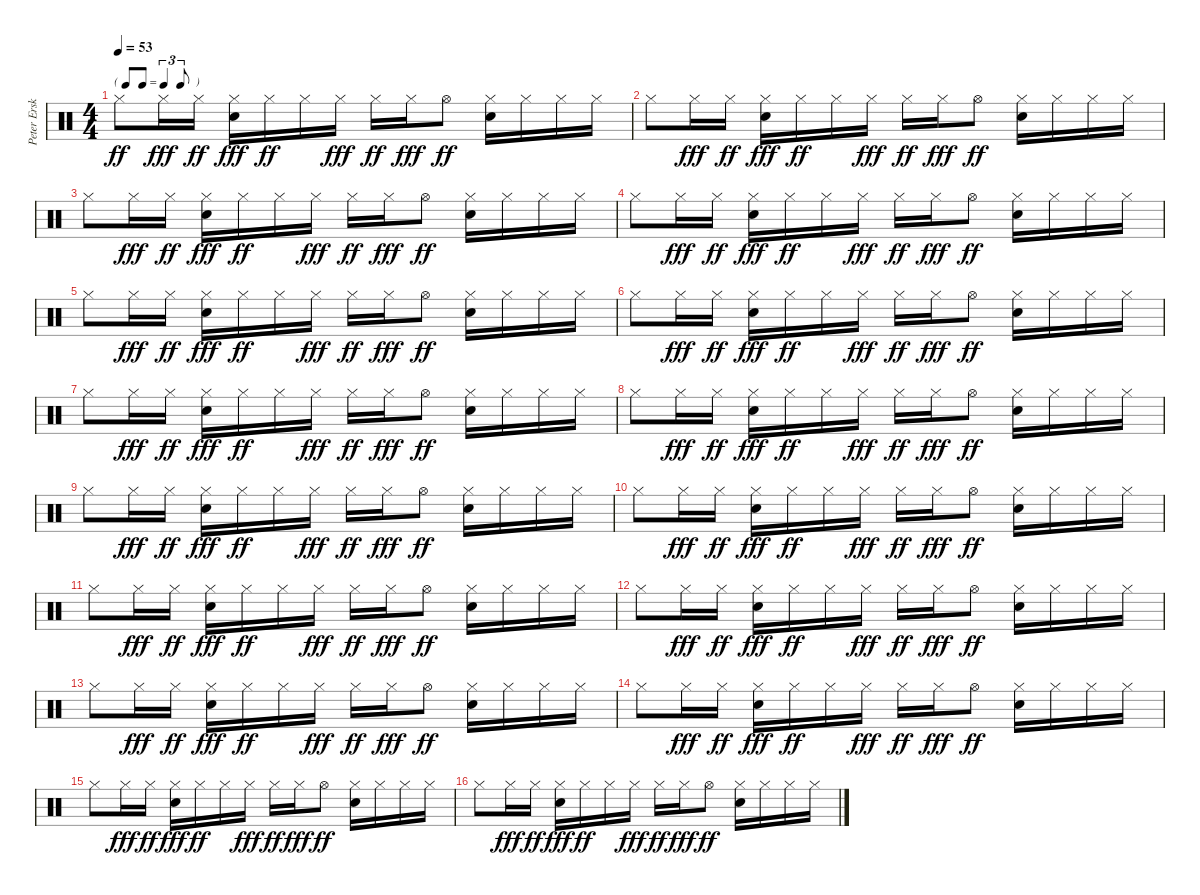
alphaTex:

\track ("Peter Erskine" "Peter Ersk") {instrument percussion}
\staff {score}
\articulation defaults
\ts (4 4)
\tf triplet8th
\tempo 53
\clef neutral
\ks c "Hi-Hat (closed)".8{dy ff} "Hi-Hat (closed)".16{dy fff} "Hi-Hat (closed)".16{dy ff}
("Snare (hit) 2" "Hi-Hat (closed)").16{dy fff} "Hi-Hat (closed)".16{dy ff} "Hi-Hat (closed)".16 "Hi-Hat (closed)".16{dy fff} "Hi-Hat (closed)".16{dy ff} "Hi-Hat (closed)".16{dy fff} "Hi-Hat (open)".8{dy ff} ("Snare (hit) 2" "Hi-Hat (closed)").16 "Hi-Hat (closed)".16 "Hi-Hat (closed)".16 "Hi-Hat (closed)".16 |
"Hi-Hat (closed)".8 "Hi-Hat (closed)".16{dy fff} "Hi-Hat (closed)".16{dy ff} ("Snare (hit) 2" "Hi-Hat (closed)").16{dy fff} "Hi-Hat (closed)".16{dy ff} "Hi-Hat (closed)".16 "Hi-Hat (closed)".16{dy fff} "Hi-Hat (closed)".16{dy ff} "Hi-Hat (closed)".16{dy fff} "Hi-Hat (open)".8{dy ff} ("Snare (hit) 2" "Hi-Hat (closed)").16 "Hi-Hat (closed)".16 "Hi-Hat (closed)".16 "Hi-Hat (closed)".16 |
"Hi-Hat (closed)".8 "Hi-Hat (closed)".16{dy fff} "Hi-Hat (closed)".16{dy ff} ("Snare (hit) 2" "Hi-Hat (closed)").16{dy fff} "Hi-Hat (closed)".16{dy ff} "Hi-Hat (closed)".16 "Hi-Hat (closed)".16{dy fff} "Hi-Hat (closed)".16{dy ff} "Hi-Hat (closed)".16{dy fff} "Hi-Hat (open)".8{dy ff} ("Snare (hit) 2" "Hi-Hat (closed)").16 "Hi-Hat (closed)".16 "Hi-Hat (closed)".16 "Hi-Hat (closed)".16 |
"Hi-Hat (closed)".8 "Hi-Hat (closed)".16{dy fff} "Hi-Hat (closed)".16{dy ff} ("Snare (hit) 2" "Hi-Hat (closed)").16{dy fff} "Hi-Hat (closed)".16{dy ff} "Hi-Hat (closed)".16 "Hi-Hat (closed)".16{dy fff} "Hi-Hat (closed)".16{dy ff} "Hi-Hat (closed)".16{dy fff} "Hi-Hat (open)".8{dy ff} ("Snare (hit) 2" "Hi-Hat (closed)").16 "Hi-Hat (closed)".16 "Hi-Hat (closed)".16 "Hi-Hat (closed)".16 |
"Hi-Hat (closed)".8 "Hi-Hat (closed)".16{dy fff} "Hi-Hat (closed)".16{dy ff} ("Snare (hit) 2" "Hi-Hat (closed)").16{dy fff} "Hi-Hat (closed)".16{dy ff} "Hi-Hat (closed)".16 "Hi-Hat (closed)".16{dy fff} "Hi-Hat (closed)".16{dy ff} "Hi-Hat (closed)".16{dy fff} "Hi-Hat (open)".8{dy ff} ("Snare (hit) 2" "Hi-Hat (closed)").16 "Hi-Hat (closed)".16 "Hi-Hat (closed)".16 "Hi-Hat (closed)".16 |
"Hi-Hat (closed)".8 "Hi-Hat (closed)".16{dy fff} "Hi-Hat (closed)".16{dy ff} ("Snare (hit) 2" "Hi-Hat (closed)").16{dy fff} "Hi-Hat (closed)".16{dy ff} "Hi-Hat (closed)".16 "Hi-Hat (closed)".16{dy fff} "Hi-Hat (closed)".16{dy ff} "Hi-Hat (closed)".16{dy fff} "Hi-Hat (open)".8{dy ff} ("Snare (hit) 2" "Hi-Hat (closed)").16 "Hi-Hat (closed)".16 "Hi-Hat (closed)".16 "Hi-Hat (closed)".16 |
"Hi-Hat (closed)".8 "Hi-Hat (closed)".16{dy fff} "Hi-Hat (closed)".16{dy ff} ("Snare (hit) 2" "Hi-Hat (closed)").16{dy fff} "Hi-Hat (closed)".16{dy ff} "Hi-Hat (closed)".16 "Hi-Hat (closed)".16{dy fff} "Hi-Hat (closed)".16{dy ff} "Hi-Hat (closed)".16{dy fff} "Hi-Hat (open)".8{dy ff} ("Snare (hit) 2" "Hi-Hat (closed)").16 "Hi-Hat (closed)".16 "Hi-Hat (closed)".16 "Hi-Hat (closed)".16 |
"Hi-Hat (closed)".8 "Hi-Hat (closed)".16{dy fff} "Hi-Hat (closed)".16{dy ff} ("Snare (hit) 2" "Hi-Hat (closed)").16{dy fff} "Hi-Hat (closed)".16{dy ff} "Hi-Hat (closed)".16 "Hi-Hat (closed)".16{dy fff} "Hi-Hat (closed)".16{dy ff} "Hi-Hat (closed)".16{dy fff} "Hi-Hat (open)".8{dy ff} ("Snare (hit) 2" "Hi-Hat (closed)").16 "Hi-Hat (closed)".16 "Hi-Hat (closed)".16 "Hi-Hat (closed)".16 |
"Hi-Hat (closed)".8 "Hi-Hat (closed)".16{dy fff} "Hi-Hat (closed)".16{dy ff} ("Snare (hit) 2" "Hi-Hat (closed)").16{dy fff} "Hi-Hat (closed)".16{dy ff} "Hi-Hat (closed)".16 "Hi-Hat (closed)".16{dy fff} "Hi-Hat (closed)".16{dy ff} "Hi-Hat (closed)".16{dy fff} "Hi-Hat (open)".8{dy ff} ("Snare (hit) 2" "Hi-Hat (closed)").16 "Hi-Hat (closed)".16 "Hi-Hat (closed)".16 "Hi-Hat (closed)".16 |
"Hi-Hat (closed)".8 "Hi-Hat (closed)".16{dy fff} "Hi-Hat (closed)".16{dy ff} ("Snare (hit) 2" "Hi-Hat (closed)").16{dy fff} "Hi-Hat (closed)".16{dy ff} "Hi-Hat (closed)".16 "Hi-Hat (closed)".16{dy fff} "Hi-Hat (closed)".16{dy ff} "Hi-Hat (closed)".16{dy fff} "Hi-Hat (open)".8{dy ff} ("Snare (hit) 2" "Hi-Hat (closed)").16 "Hi-Hat (closed)".16 "Hi-Hat (closed)".16 "Hi-Hat (closed)".16 |
"Hi-Hat (closed)".8 "Hi-Hat (closed)".16{dy fff} "Hi-Hat (closed)".16{dy ff} ("Snare (hit) 2" "Hi-Hat (closed)").16{dy fff} "Hi-Hat (closed)".16{dy ff} "Hi-Hat (closed)".16 "Hi-Hat (closed)".16{dy fff} "Hi-Hat (closed)".16{dy ff} "Hi-Hat (closed)".16{dy fff} "Hi-Hat (open)".8{dy ff} ("Snare (hit) 2" "Hi-Hat (closed)").16 "Hi-Hat (closed)".16 "Hi-Hat (closed)".16 "Hi-Hat (closed)".16 |
"Hi-Hat (closed)".8 "Hi-Hat (closed)".16{dy fff} "Hi-Hat (closed)".16{dy ff} ("Snare (hit) 2" "Hi-Hat (closed)").16{dy fff} "Hi-Hat (closed)".16{dy ff} "Hi-Hat (closed)".16 "Hi-Hat (closed)".16{dy fff} "Hi-Hat (closed)".16{dy ff} "Hi-Hat (closed)".16{dy fff} "Hi-Hat (open)".8{dy ff} ("Snare (hit) 2" "Hi-Hat (closed)").16 "Hi-Hat (closed)".16 "Hi-Hat (closed)".16 "Hi-Hat (closed)".16 |
"Hi-Hat (closed)".8 "Hi-Hat (closed)".16{dy fff} "Hi-Hat (closed)".16{dy ff} ("Snare (hit) 2" "Hi-Hat (closed)").16{dy fff} "Hi-Hat (closed)".16{dy ff} "Hi-Hat (closed)".16 "Hi-Hat (closed)".16{dy fff} "Hi-Hat (closed)".16{dy ff} "Hi-Hat (closed)".16{dy fff} "Hi-Hat (open)".8{dy ff} ("Snare (hit) 2" "Hi-Hat (closed)").16 "Hi-Hat (closed)".16 "Hi-Hat (closed)".16 "Hi-Hat (closed)".16 |
"Hi-Hat (closed)".8 "Hi-Hat (closed)".16{dy fff} "Hi-Hat (closed)".16{dy ff} ("Snare (hit) 2" "Hi-Hat (closed)").16{dy fff} "Hi-Hat (closed)".16{dy ff} "Hi-Hat (closed)".16 "Hi-Hat (closed)".16{dy fff} "Hi-Hat (closed)".16{dy ff} "Hi-Hat (closed)".16{dy fff} "Hi-Hat (open)".8{dy ff} ("Snare (hit) 2" "Hi-Hat (closed)").16 "Hi-Hat (closed)".16 "Hi-Hat (closed)".16 "Hi-Hat (closed)".16 |
"Hi-Hat (closed)".8 "Hi-Hat (closed)".16{dy fff} "Hi-Hat (closed)".16{dy ff} ("Snare (hit) 2" "Hi-Hat (closed)").16{dy fff} "Hi-Hat (closed)".16{dy ff} "Hi-Hat (closed)".16 "Hi-Hat (closed)".16{dy fff} "Hi-Hat (closed)".16{dy ff} "Hi-Hat (closed)".16{dy fff} "Hi-Hat (open)".8{dy ff} ("Snare (hit) 2" "Hi-Hat (closed)").16 "Hi-Hat (closed)".16 "Hi-Hat (closed)".16 "Hi-Hat (closed)".16 |
"Hi-Hat (closed)".8 "Hi-Hat (closed)".16{dy fff} "Hi-Hat (closed)".16{dy ff} ("Snare (hit) 2" "Hi-Hat (closed)").16{dy fff} "Hi-Hat (closed)".16{dy ff} "Hi-Hat (closed)".16 "Hi-Hat (closed)".16{dy fff} "Hi-Hat (closed)".16{dy ff} "Hi-Hat (closed)".16{dy fff} "Hi-Hat (open)".8{dy ff} ("Snare (hit) 2" "Hi-Hat (closed)").16 "Hi-Hat (closed)".16 "Hi-Hat (closed)".16 "Hi-Hat (closed)".16
